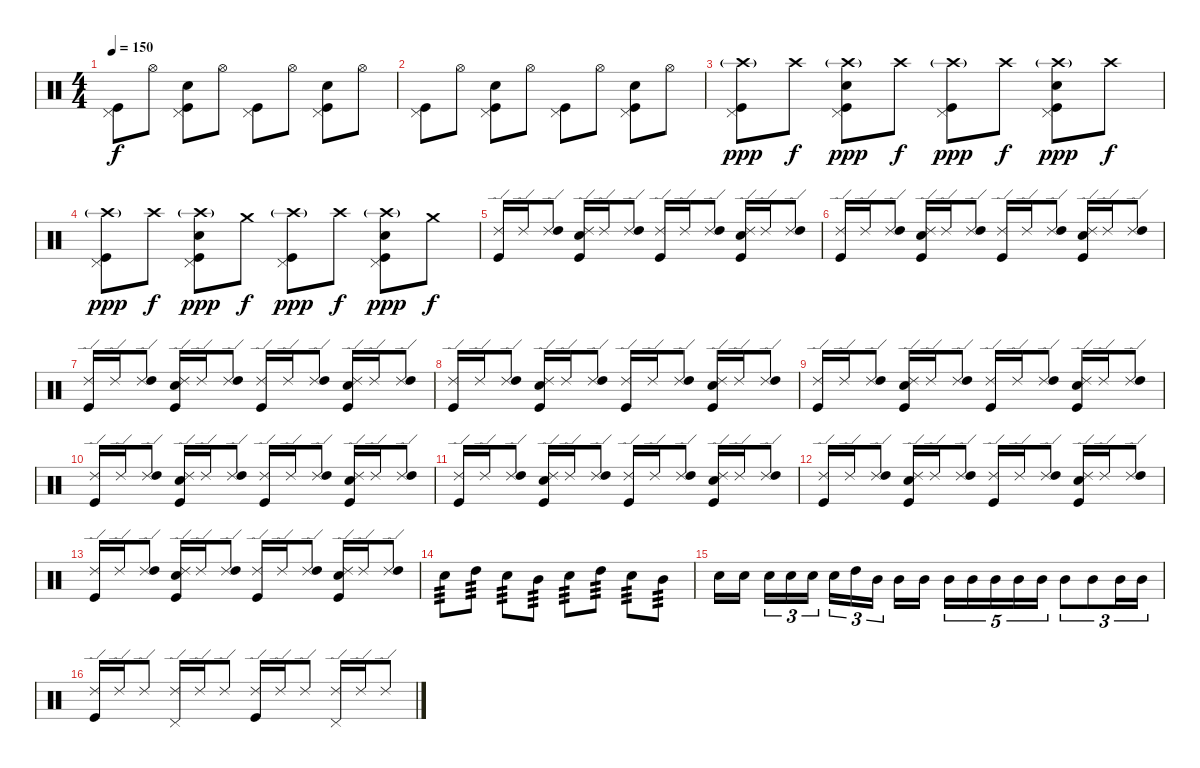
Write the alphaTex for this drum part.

\track "" {instrument percussion}
\staff {score}
\articulation defaults
\ts (4 4)
\tempo 150
\clef neutral
\ks c
("Pedal Hi-Hat (hit)" "Kick (hit)").8{dy f} "Hi-Hat (open)".8 ("Pedal Hi-Hat (hit)" "Electric Snare (hit)" "Kick (hit)").8 "Hi-Hat (open)".8 ("Pedal Hi-Hat (hit)" "Kick (hit)").8 "Hi-Hat (open)".8 ("Pedal Hi-Hat (hit)" "Electric Snare (hit)" "Kick (hit)").8 "Hi-Hat (open)".8 |
("Pedal Hi-Hat (hit)" "Kick (hit)").8 "Hi-Hat (open)".8 ("Pedal Hi-Hat (hit)" "Electric Snare (hit)" "Kick (hit)").8 "Hi-Hat (open)".8 ("Pedal Hi-Hat (hit)" "Kick (hit)").8 "Hi-Hat (open)".8 ("Pedal Hi-Hat (hit)" "Electric Snare (hit)" "Kick (hit)").8 "Hi-Hat (open)".8 |
("Crash high (hit)"{g} "Pedal Hi-Hat (hit)" "Kick (hit)").8{dy ppp} "Crash high (hit)".8{dy f} ("Crash high (hit)"{g} "Pedal Hi-Hat (hit)" "Electric Snare (hit)" "Kick (hit)").8{dy ppp} "Crash high (hit)".8{dy f} ("Crash high (hit)"{g} "Pedal Hi-Hat (hit)" "Kick (hit)").8{dy ppp} "Crash high (hit)".8{dy f} ("Crash high (hit)"{g} "Pedal Hi-Hat (hit)" "Electric Snare (hit)" "Kick (hit)").8{dy ppp} "Crash high (hit)".8{dy f} |
("Crash high (hit)"{g} "Pedal Hi-Hat (hit)" "Kick (hit)").8{dy ppp} "Crash high (hit)".8{dy f} ("Crash high (hit)"{g} "Pedal Hi-Hat (hit)" "Electric Snare (hit)" "Kick (hit)").8{dy ppp} "Crash medium (hit)".8{dy f} ("Crash high (hit)"{g} "Pedal Hi-Hat (hit)" "Kick (hit)").8{dy ppp} "Crash high (hit)".8{dy f} ("Crash high (hit)"{g} "Pedal Hi-Hat (hit)" "Electric Snare (hit)" "Kick (hit)").8{dy ppp} "Crash medium (hit)".8{dy f} |
("Ride (edge) 2" "Kick (hit)").16 "Ride (edge) 2".16 ("Ride (edge) 2" "High Tom (hit)").8 ("Ride (edge) 2" "Electric Snare (hit)" "Kick (hit)").16 "Ride (edge) 2".16 ("Ride (edge) 2" "High Tom (hit)").8 ("Ride (edge) 2" "Kick (hit)").16 "Ride (edge) 2".16 ("Ride (edge) 2" "High Tom (hit)").8 ("Ride (edge) 2" "Electric Snare (hit)" "Kick (hit)").16 "Ride (edge) 2".16 ("Ride (edge) 2" "High Tom (hit)").8 |
("Ride (edge) 2" "Kick (hit)").16 "Ride (edge) 2".16 ("Ride (edge) 2" "High Tom (hit)").8 ("Ride (edge) 2" "Electric Snare (hit)" "Kick (hit)").16 "Ride (edge) 2".16 ("Ride (edge) 2" "High Tom (hit)").8 ("Ride (edge) 2" "Kick (hit)").16 "Ride (edge) 2".16 ("Ride (edge) 2" "High Tom (hit)").8 ("Ride (edge) 2" "Electric Snare (hit)" "Kick (hit)").16 "Ride (edge) 2".16 ("Ride (edge) 2" "High Tom (hit)").8 |
("Ride (edge) 2" "Kick (hit)").16 "Ride (edge) 2".16 ("Ride (edge) 2" "High Tom (hit)").8 ("Ride (edge) 2" "Electric Snare (hit)" "Kick (hit)").16 "Ride (edge) 2".16 ("Ride (edge) 2" "High Tom (hit)").8 ("Ride (edge) 2" "Kick (hit)").16 "Ride (edge) 2".16 ("Ride (edge) 2" "High Tom (hit)").8 ("Ride (edge) 2" "Electric Snare (hit)" "Kick (hit)").16 "Ride (edge) 2".16 ("Ride (edge) 2" "High Tom (hit)").8 |
("Ride (edge) 2" "Kick (hit)").16 "Ride (edge) 2".16 ("Ride (edge) 2" "High Tom (hit)").8 ("Ride (edge) 2" "Electric Snare (hit)" "Kick (hit)").16 "Ride (edge) 2".16 ("Ride (edge) 2" "High Tom (hit)").8 ("Ride (edge) 2" "Kick (hit)").16 "Ride (edge) 2".16 ("Ride (edge) 2" "High Tom (hit)").8 ("Ride (edge) 2" "Electric Snare (hit)" "Kick (hit)").16 "Ride (edge) 2".16 ("Ride (edge) 2" "High Tom (hit)").8 |
("Ride (edge) 2" "Kick (hit)").16 "Ride (edge) 2".16 ("Ride (edge) 2" "High Tom (hit)").8 ("Ride (edge) 2" "Electric Snare (hit)" "Kick (hit)").16 "Ride (edge) 2".16 ("Ride (edge) 2" "High Tom (hit)").8 ("Ride (edge) 2" "Kick (hit)").16 "Ride (edge) 2".16 ("Ride (edge) 2" "High Tom (hit)").8 ("Ride (edge) 2" "Electric Snare (hit)" "Kick (hit)").16 "Ride (edge) 2".16 ("Ride (edge) 2" "High Tom (hit)").8 |
("Ride (edge) 2" "Kick (hit)").16 "Ride (edge) 2".16 ("Ride (edge) 2" "High Tom (hit)").8 ("Ride (edge) 2" "Electric Snare (hit)" "Kick (hit)").16 "Ride (edge) 2".16 ("Ride (edge) 2" "High Tom (hit)").8 ("Ride (edge) 2" "Kick (hit)").16 "Ride (edge) 2".16 ("Ride (edge) 2" "High Tom (hit)").8 ("Ride (edge) 2" "Electric Snare (hit)" "Kick (hit)").16 "Ride (edge) 2".16 ("Ride (edge) 2" "High Tom (hit)").8 |
("Ride (edge) 2" "Kick (hit)").16 "Ride (edge) 2".16 ("Ride (edge) 2" "High Tom (hit)").8 ("Ride (edge) 2" "Electric Snare (hit)" "Kick (hit)").16 "Ride (edge) 2".16 ("Ride (edge) 2" "High Tom (hit)").8 ("Ride (edge) 2" "Kick (hit)").16 "Ride (edge) 2".16 ("Ride (edge) 2" "High Tom (hit)").8 ("Ride (edge) 2" "Electric Snare (hit)" "Kick (hit)").16 "Ride (edge) 2".16 ("Ride (edge) 2" "High Tom (hit)").8 |
("Ride (edge) 2" "Kick (hit)").16 "Ride (edge) 2".16 ("Ride (edge) 2" "High Tom (hit)").8 ("Ride (edge) 2" "Electric Snare (hit)" "Kick (hit)").16 "Ride (edge) 2".16 ("Ride (edge) 2" "High Tom (hit)").8 ("Ride (edge) 2" "Kick (hit)").16 "Ride (edge) 2".16 ("Ride (edge) 2" "High Tom (hit)").8 ("Ride (edge) 2" "Electric Snare (hit)" "Kick (hit)").16 "Ride (edge) 2".16 ("Ride (edge) 2" "High Tom (hit)").8 |
("Ride (edge) 2" "Kick (hit)").16 "Ride (edge) 2".16 ("Ride (edge) 2" "High Tom (hit)").8 ("Ride (edge) 2" "Electric Snare (hit)" "Kick (hit)").16 "Ride (edge) 2".16 ("Ride (edge) 2" "High Tom (hit)").8 ("Ride (edge) 2" "Kick (hit)").16 "Ride (edge) 2".16 ("Ride (edge) 2" "High Tom (hit)").8 ("Ride (edge) 2" "Electric Snare (hit)" "Kick (hit)").16 "Ride (edge) 2".16 ("Ride (edge) 2" "High Tom (hit)").8 |
"Electric Snare (hit)".8{tp 3} "High Tom (hit)".8{tp 3} "Electric Snare (hit)".8{tp 3} "Mid Tom (hit)".8{tp 3} "Electric Snare (hit)".8{tp 3} "High Tom (hit)".8{tp 3} "Electric Snare (hit)".8{tp 3} "Mid Tom (hit)".8{tp 3} |
"Electric Snare (hit)".16 "Electric Snare (hit)".16 "Electric Snare (hit)".16{tu (3 2)} "Electric Snare (hit)".16{tu (3 2)} "Electric Snare (hit)".16{tu (3 2)} "Electric Snare (hit)".16{tu (3 2)} "High Tom (hit)".16{tu (3 2)} "Mid Tom (hit)".16{tu (3 2)} "Mid Tom (hit)".16 "Mid Tom (hit)".16 "Mid Tom (hit)".16{tu (5 4)} "Mid Tom (hit)".16{tu (5 4)} "Mid Tom (hit)".16{tu (5 4)} "Mid Tom (hit)".16{tu (5 4)} "Mid Tom (hit)".16{tu (5 4)} "Mid Tom (hit)".8{tu (3 2)} "Mid Tom (hit)".8{tu (3 2)} "Mid Tom (hit)".16{tu (3 2)} "Mid Tom (hit)".16{tu (3 2)} |
("Ride (edge) 2" "Kick (hit)").16 "Ride (edge) 2".16 "Ride (edge) 2".8 ("Ride (edge) 2" "Pedal Hi-Hat (hit)").16 "Ride (edge) 2".16 "Ride (edge) 2".8 ("Ride (edge) 2" "Kick (hit)").16 "Ride (edge) 2".16 "Ride (edge) 2".8 ("Ride (edge) 2" "Pedal Hi-Hat (hit)").16 "Ride (edge) 2".16 "Ride (edge) 2".8
